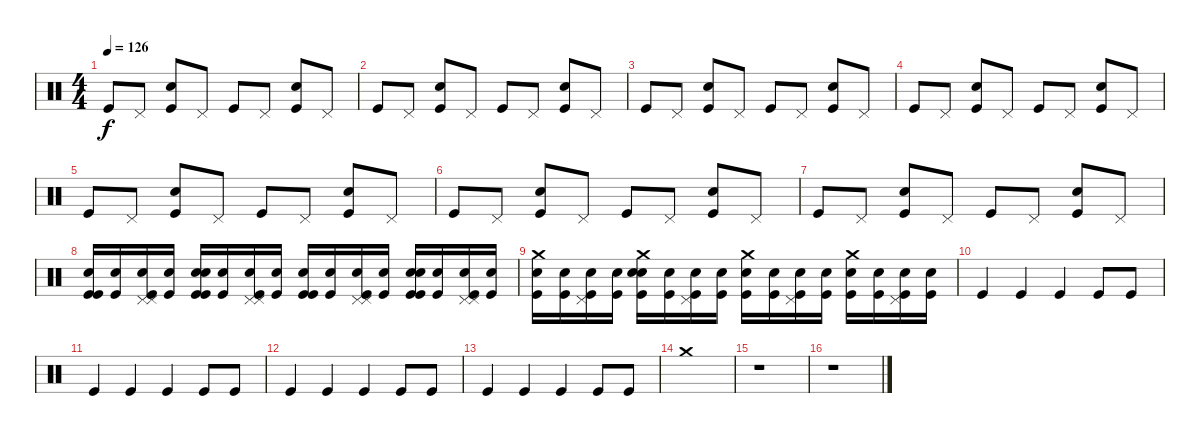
\track "" {instrument percussion}
\staff {score}
\articulation defaults
\ts (4 4)
\tempo 126
\clef neutral
\ks c "Kick (hit)".8{dy f} "Pedal Hi-Hat (hit)".8
("Kick (hit)" "Hand Clap (hit)").8 "Pedal Hi-Hat (hit)".8 "Kick (hit)".8 "Pedal Hi-Hat (hit)".8 ("Kick (hit)" "Hand Clap (hit)").8 "Pedal Hi-Hat (hit)".8 |
"Kick (hit)".8 "Pedal Hi-Hat (hit)".8 ("Kick (hit)" "Hand Clap (hit)").8 "Pedal Hi-Hat (hit)".8 "Kick (hit)".8 "Pedal Hi-Hat (hit)".8 ("Kick (hit)" "Hand Clap (hit)").8 "Pedal Hi-Hat (hit)".8 |
"Kick (hit)".8 "Pedal Hi-Hat (hit)".8 ("Kick (hit)" "Hand Clap (hit)").8 "Pedal Hi-Hat (hit)".8 "Kick (hit)".8 "Pedal Hi-Hat (hit)".8 ("Kick (hit)" "Hand Clap (hit)").8 "Pedal Hi-Hat (hit)".8 |
"Kick (hit)".8 "Pedal Hi-Hat (hit)".8 ("Kick (hit)" "Hand Clap (hit)").8 "Pedal Hi-Hat (hit)".8 "Kick (hit)".8 "Pedal Hi-Hat (hit)".8 ("Kick (hit)" "Hand Clap (hit)").8 "Pedal Hi-Hat (hit)".8 |
"Kick (hit)".8 "Pedal Hi-Hat (hit)".8 ("Kick (hit)" "Hand Clap (hit)").8 "Pedal Hi-Hat (hit)".8 "Kick (hit)".8 "Pedal Hi-Hat (hit)".8 ("Kick (hit)" "Hand Clap (hit)").8 "Pedal Hi-Hat (hit)".8 |
"Kick (hit)".8 "Pedal Hi-Hat (hit)".8 ("Kick (hit)" "Hand Clap (hit)").8 "Pedal Hi-Hat (hit)".8 "Kick (hit)".8 "Pedal Hi-Hat (hit)".8 ("Kick (hit)" "Hand Clap (hit)").8 "Pedal Hi-Hat (hit)".8 |
"Kick (hit)".8 "Pedal Hi-Hat (hit)".8 ("Kick (hit)" "Hand Clap (hit)").8 "Pedal Hi-Hat (hit)".8 "Kick (hit)".8 "Pedal Hi-Hat (hit)".8 ("Kick (hit)" "Hand Clap (hit)").8 "Pedal Hi-Hat (hit)".8 |
("Kick (hit)" "Snare (hit) 2" "Kick (hit)").16 ("Snare (hit) 2" "Kick (hit)").16 ("Pedal Hi-Hat (hit)" "Snare (hit) 2" "Kick (hit)" "Pedal Hi-Hat (hit)").16 ("Snare (hit) 2" "Kick (hit)").16 ("Kick (hit)" "Hand Clap (hit)" "Snare (hit) 2" "Kick (hit)").16 ("Snare (hit) 2" "Kick (hit)").16 ("Pedal Hi-Hat (hit)" "Snare (hit) 2" "Kick (hit)" "Pedal Hi-Hat (hit)").16 ("Snare (hit) 2" "Kick (hit)").16 ("Kick (hit)" "Snare (hit) 2" "Kick (hit)").16 ("Snare (hit) 2" "Kick (hit)").16 ("Pedal Hi-Hat (hit)" "Snare (hit) 2" "Kick (hit)" "Pedal Hi-Hat (hit)").16 ("Snare (hit) 2" "Kick (hit)").16 ("Kick (hit)" "Hand Clap (hit)" "Snare (hit) 2" "Kick (hit)").16 ("Snare (hit) 2" "Kick (hit)").16 ("Pedal Hi-Hat (hit)" "Snare (hit) 2" "Kick (hit)" "Pedal Hi-Hat (hit)").16 ("Snare (hit) 2" "Kick (hit)").16 |
("Snare (hit) 2" "Crash medium (hit)" "Kick (hit)").16 ("Snare (hit) 2" "Kick (hit)").16 ("Snare (hit) 2" "Kick (hit)" "Pedal Hi-Hat (hit)").16 ("Snare (hit) 2" "Kick (hit)").16 ("Snare (hit) 2" "Crash medium (hit)" "Kick (hit)" "Hand Clap (hit)").16 ("Snare (hit) 2" "Kick (hit)").16 ("Snare (hit) 2" "Kick (hit)" "Pedal Hi-Hat (hit)").16 ("Snare (hit) 2" "Kick (hit)").16 ("Snare (hit) 2" "Crash medium (hit)" "Kick (hit)").16 ("Snare (hit) 2" "Kick (hit)").16 ("Snare (hit) 2" "Kick (hit)" "Pedal Hi-Hat (hit)").16 ("Snare (hit) 2" "Kick (hit)").16 ("Snare (hit) 2" "Crash medium (hit)" "Kick (hit)").16 ("Snare (hit) 2" "Kick (hit)").16 ("Snare (hit) 2" "Kick (hit)" "Pedal Hi-Hat (hit)").16 ("Snare (hit) 2" "Kick (hit)").16 |
"Kick (hit)".4 "Kick (hit)".4 "Kick (hit)".4 "Kick (hit)".8 "Kick (hit)".8 |
"Kick (hit)".4 "Kick (hit)".4 "Kick (hit)".4 "Kick (hit)".8 "Kick (hit)".8 |
"Kick (hit)".4 "Kick (hit)".4 "Kick (hit)".4 "Kick (hit)".8 "Kick (hit)".8 |
"Kick (hit)".4 "Kick (hit)".4 "Kick (hit)".4 "Kick (hit)".8 "Kick (hit)".8 |
"Crash medium (hit)".1 |
r.1 |
r.1
